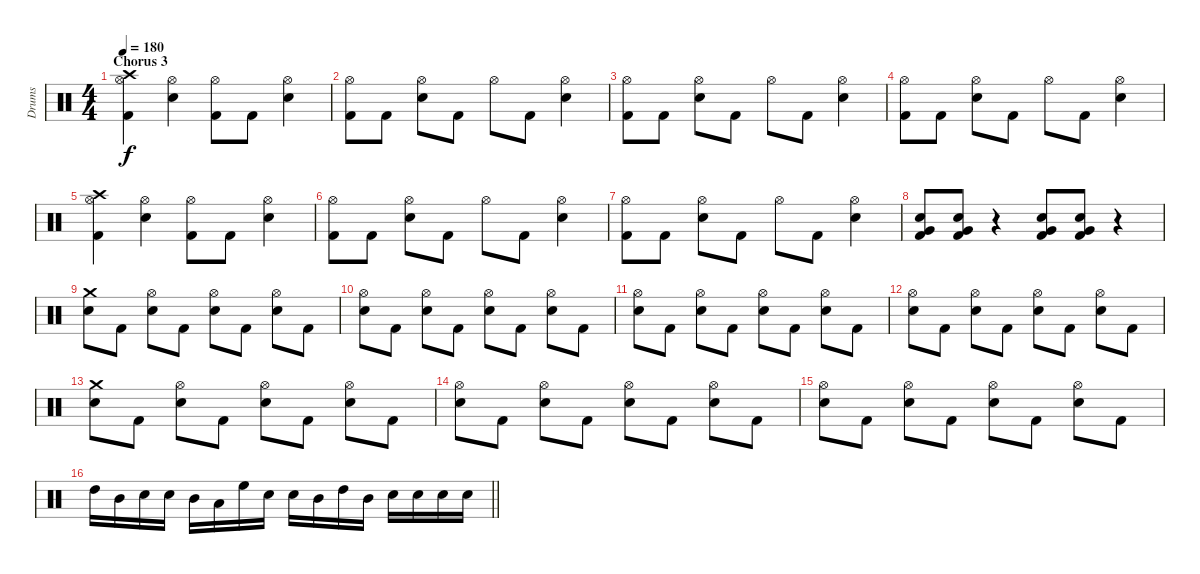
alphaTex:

\track ("Drums" "Drums") {instrument percussion}
\staff {score}
\articulation defaults
\ts (4 4)
\section ("" "Chorus 3")
\tempo 180
\clef neutral
\ks c
("Crash high (hit)" "Hi-Hat (open)" "Kick (hit) 2").4{dy f} ("Hi-Hat (open)" "Electric Snare (hit)").4 ("Hi-Hat (open)" "Kick (hit) 2").8 "Kick (hit) 2".8 ("Hi-Hat (open)" "Electric Snare (hit)").4 |
("Hi-Hat (open)" "Kick (hit) 2").8 "Kick (hit) 2".8 ("Hi-Hat (open)" "Electric Snare (hit)").8 "Kick (hit) 2".8 "Hi-Hat (open)".8 "Kick (hit) 2".8 ("Hi-Hat (open)" "Electric Snare (hit)").4 |
("Hi-Hat (open)" "Kick (hit) 2").8 "Kick (hit) 2".8 ("Hi-Hat (open)" "Electric Snare (hit)").8 "Kick (hit) 2".8 "Hi-Hat (open)".8 "Kick (hit) 2".8 ("Hi-Hat (open)" "Electric Snare (hit)").4 |
("Hi-Hat (open)" "Kick (hit) 2").8 "Kick (hit) 2".8 ("Hi-Hat (open)" "Electric Snare (hit)").8 "Kick (hit) 2".8 "Hi-Hat (open)".8 "Kick (hit) 2".8 ("Hi-Hat (open)" "Electric Snare (hit)").4 |
("Crash high (hit)" "Hi-Hat (open)" "Kick (hit) 2").4 ("Hi-Hat (open)" "Electric Snare (hit)").4 ("Hi-Hat (open)" "Kick (hit) 2").8 "Kick (hit) 2".8 ("Hi-Hat (open)" "Electric Snare (hit)").4 |
("Hi-Hat (open)" "Kick (hit) 2").8 "Kick (hit) 2".8 ("Hi-Hat (open)" "Electric Snare (hit)").8 "Kick (hit) 2".8 "Hi-Hat (open)".8 "Kick (hit) 2".8 ("Hi-Hat (open)" "Electric Snare (hit)").4 |
("Hi-Hat (open)" "Kick (hit) 2").8 "Kick (hit) 2".8 ("Hi-Hat (open)" "Electric Snare (hit)").8 "Kick (hit) 2".8 "Hi-Hat (open)".8 "Kick (hit) 2".8 ("Hi-Hat (open)" "Electric Snare (hit)").4 |
("Very Low Tom (hit)" "Electric Snare (hit)" "Kick (hit) 2").8 ("Very Low Tom (hit)" "Electric Snare (hit)" "Kick (hit) 2").8 r.4 ("Very Low Tom (hit)" "Electric Snare (hit)" "Kick (hit) 2").8 ("Very Low Tom (hit)" "Electric Snare (hit)" "Kick (hit) 2").8 r.4 |
("Crash medium (hit)" "Electric Snare (hit)").8 "Kick (hit) 2".8 ("Hi-Hat (open)" "Electric Snare (hit)").8 "Kick (hit) 2".8 ("Hi-Hat (open)" "Electric Snare (hit)").8 "Kick (hit) 2".8 ("Hi-Hat (open)" "Electric Snare (hit)").8 "Kick (hit) 2".8 |
("Hi-Hat (open)" "Electric Snare (hit)").8 "Kick (hit) 2".8 ("Hi-Hat (open)" "Electric Snare (hit)").8 "Kick (hit) 2".8 ("Hi-Hat (open)" "Electric Snare (hit)").8 "Kick (hit) 2".8 ("Hi-Hat (open)" "Electric Snare (hit)").8 "Kick (hit) 2".8 |
("Hi-Hat (open)" "Electric Snare (hit)").8 "Kick (hit) 2".8 ("Hi-Hat (open)" "Electric Snare (hit)").8 "Kick (hit) 2".8 ("Hi-Hat (open)" "Electric Snare (hit)").8 "Kick (hit) 2".8 ("Hi-Hat (open)" "Electric Snare (hit)").8 "Kick (hit) 2".8 |
("Hi-Hat (open)" "Electric Snare (hit)").8 "Kick (hit) 2".8 ("Hi-Hat (open)" "Electric Snare (hit)").8 "Kick (hit) 2".8 ("Hi-Hat (open)" "Electric Snare (hit)").8 "Kick (hit) 2".8 ("Hi-Hat (open)" "Electric Snare (hit)").8 "Kick (hit) 2".8 |
("Crash medium (hit)" "Electric Snare (hit)").8 "Kick (hit) 2".8 ("Hi-Hat (open)" "Electric Snare (hit)").8 "Kick (hit) 2".8 ("Hi-Hat (open)" "Electric Snare (hit)").8 "Kick (hit) 2".8 ("Hi-Hat (open)" "Electric Snare (hit)").8 "Kick (hit) 2".8 |
("Hi-Hat (open)" "Electric Snare (hit)").8 "Kick (hit) 2".8 ("Hi-Hat (open)" "Electric Snare (hit)").8 "Kick (hit) 2".8 ("Hi-Hat (open)" "Electric Snare (hit)").8 "Kick (hit) 2".8 ("Hi-Hat (open)" "Electric Snare (hit)").8 "Kick (hit) 2".8 |
("Hi-Hat (open)" "Electric Snare (hit)").8 "Kick (hit) 2".8 ("Hi-Hat (open)" "Electric Snare (hit)").8 "Kick (hit) 2".8 ("Hi-Hat (open)" "Electric Snare (hit)").8 "Kick (hit) 2".8 ("Hi-Hat (open)" "Electric Snare (hit)").8 "Kick (hit) 2".8 |
\barLineRight lightlight "High Tom (hit)".16 "Mid Tom (hit)".16 "Electric Snare (hit)".16 "Electric Snare (hit)".16 "Mid Tom (hit)".16 "Low Tom (hit)".16 "High Floor Tom (hit)".16 "Electric Snare (hit)".16 "Electric Snare (hit)".16 "Mid Tom (hit)".16 "High Tom (hit)".16 "Mid Tom (hit)".16 "Electric Snare (hit)".16 "Electric Snare (hit)".16 "Electric Snare (hit)".16 "Electric Snare (hit)".16
